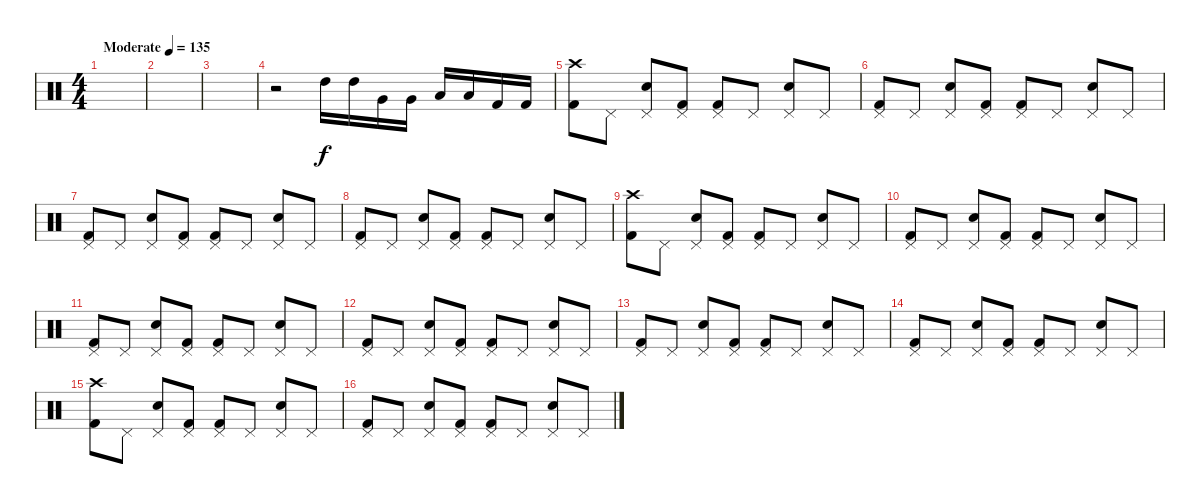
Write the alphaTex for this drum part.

\track "" {instrument percussion}
\staff {score}
\articulation defaults
\ts (4 4)
\tempo (135 "Moderate")
\clef neutral
\ks c
|
|
|
r.2 "High Tom (hit)".16 "High Tom (hit)".16 "Very Low Tom (hit)".16 "Very Low Tom (hit)".16 "Low Floor Tom (hit)".16 "Low Floor Tom (hit)".16 "Kick (hit) 2".16 "Kick (hit) 2".16 |
("Crash high (hit)" "Kick (hit) 2").8 "Pedal Hi-Hat (hit)".8 ("Pedal Hi-Hat (hit)" "Snare (hit) 2").8 ("Pedal Hi-Hat (hit)" "Kick (hit) 2").8 ("Pedal Hi-Hat (hit)" "Kick (hit) 2").8 "Pedal Hi-Hat (hit)".8 ("Pedal Hi-Hat (hit)" "Snare (hit) 2").8 "Pedal Hi-Hat (hit)".8 |
("Pedal Hi-Hat (hit)" "Kick (hit) 2").8 "Pedal Hi-Hat (hit)".8 ("Pedal Hi-Hat (hit)" "Snare (hit) 2").8 ("Pedal Hi-Hat (hit)" "Kick (hit) 2").8 ("Pedal Hi-Hat (hit)" "Kick (hit) 2").8 "Pedal Hi-Hat (hit)".8 ("Pedal Hi-Hat (hit)" "Snare (hit) 2").8 "Pedal Hi-Hat (hit)".8 |
("Pedal Hi-Hat (hit)" "Kick (hit) 2").8 "Pedal Hi-Hat (hit)".8 ("Pedal Hi-Hat (hit)" "Snare (hit) 2").8 ("Pedal Hi-Hat (hit)" "Kick (hit) 2").8 ("Pedal Hi-Hat (hit)" "Kick (hit) 2").8 "Pedal Hi-Hat (hit)".8 ("Pedal Hi-Hat (hit)" "Snare (hit) 2").8 "Pedal Hi-Hat (hit)".8 |
("Pedal Hi-Hat (hit)" "Kick (hit) 2").8 "Pedal Hi-Hat (hit)".8 ("Pedal Hi-Hat (hit)" "Snare (hit) 2").8 ("Pedal Hi-Hat (hit)" "Kick (hit) 2").8 ("Pedal Hi-Hat (hit)" "Kick (hit) 2").8 "Pedal Hi-Hat (hit)".8 ("Pedal Hi-Hat (hit)" "Snare (hit) 2").8 "Pedal Hi-Hat (hit)".8 |
("Crash high (hit)" "Kick (hit) 2").8 "Pedal Hi-Hat (hit)".8 ("Pedal Hi-Hat (hit)" "Snare (hit) 2").8 ("Pedal Hi-Hat (hit)" "Kick (hit) 2").8 ("Pedal Hi-Hat (hit)" "Kick (hit) 2").8 "Pedal Hi-Hat (hit)".8 ("Pedal Hi-Hat (hit)" "Snare (hit) 2").8 "Pedal Hi-Hat (hit)".8 |
("Pedal Hi-Hat (hit)" "Kick (hit) 2").8 "Pedal Hi-Hat (hit)".8 ("Pedal Hi-Hat (hit)" "Snare (hit) 2").8 ("Pedal Hi-Hat (hit)" "Kick (hit) 2").8 ("Pedal Hi-Hat (hit)" "Kick (hit) 2").8 "Pedal Hi-Hat (hit)".8 ("Pedal Hi-Hat (hit)" "Snare (hit) 2").8 "Pedal Hi-Hat (hit)".8 |
("Pedal Hi-Hat (hit)" "Kick (hit) 2").8 "Pedal Hi-Hat (hit)".8 ("Pedal Hi-Hat (hit)" "Snare (hit) 2").8 ("Pedal Hi-Hat (hit)" "Kick (hit) 2").8 ("Pedal Hi-Hat (hit)" "Kick (hit) 2").8 "Pedal Hi-Hat (hit)".8 ("Pedal Hi-Hat (hit)" "Snare (hit) 2").8 "Pedal Hi-Hat (hit)".8 |
("Pedal Hi-Hat (hit)" "Kick (hit) 2").8 "Pedal Hi-Hat (hit)".8 ("Pedal Hi-Hat (hit)" "Snare (hit) 2").8 ("Pedal Hi-Hat (hit)" "Kick (hit) 2").8 ("Pedal Hi-Hat (hit)" "Kick (hit) 2").8 "Pedal Hi-Hat (hit)".8 ("Pedal Hi-Hat (hit)" "Snare (hit) 2").8 "Pedal Hi-Hat (hit)".8 |
("Pedal Hi-Hat (hit)" "Kick (hit) 2").8 "Pedal Hi-Hat (hit)".8 ("Pedal Hi-Hat (hit)" "Snare (hit) 2").8 ("Pedal Hi-Hat (hit)" "Kick (hit) 2").8 ("Pedal Hi-Hat (hit)" "Kick (hit) 2").8 "Pedal Hi-Hat (hit)".8 ("Pedal Hi-Hat (hit)" "Snare (hit) 2").8 "Pedal Hi-Hat (hit)".8 |
("Pedal Hi-Hat (hit)" "Kick (hit) 2").8 "Pedal Hi-Hat (hit)".8 ("Pedal Hi-Hat (hit)" "Snare (hit) 2").8 ("Pedal Hi-Hat (hit)" "Kick (hit) 2").8 ("Pedal Hi-Hat (hit)" "Kick (hit) 2").8 "Pedal Hi-Hat (hit)".8 ("Pedal Hi-Hat (hit)" "Snare (hit) 2").8 "Pedal Hi-Hat (hit)".8 |
("Crash high (hit)" "Kick (hit) 2").8 "Pedal Hi-Hat (hit)".8 ("Pedal Hi-Hat (hit)" "Snare (hit) 2").8 ("Pedal Hi-Hat (hit)" "Kick (hit) 2").8 ("Pedal Hi-Hat (hit)" "Kick (hit) 2").8 "Pedal Hi-Hat (hit)".8 ("Pedal Hi-Hat (hit)" "Snare (hit) 2").8 "Pedal Hi-Hat (hit)".8 |
("Pedal Hi-Hat (hit)" "Kick (hit) 2").8 "Pedal Hi-Hat (hit)".8 ("Pedal Hi-Hat (hit)" "Snare (hit) 2").8 ("Pedal Hi-Hat (hit)" "Kick (hit) 2").8 ("Pedal Hi-Hat (hit)" "Kick (hit) 2").8 "Pedal Hi-Hat (hit)".8 ("Pedal Hi-Hat (hit)" "Snare (hit) 2").8 "Pedal Hi-Hat (hit)".8
